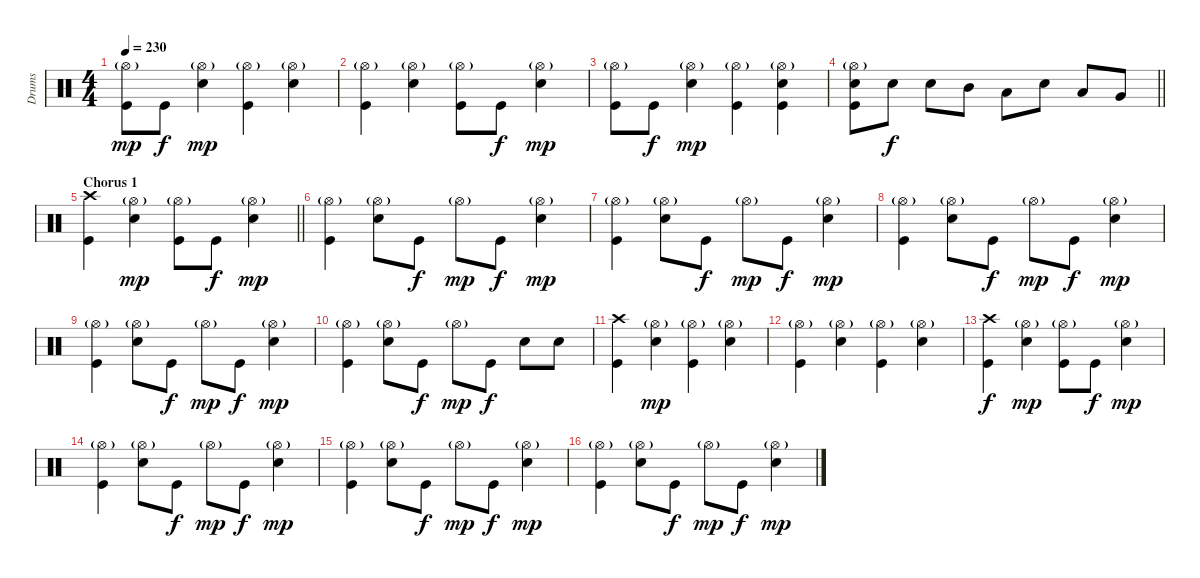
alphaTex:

\track ("Drums" "Drums") {instrument percussion}
\staff {score}
\articulation defaults
\ts (4 4)
\tempo 230
\clef neutral
\ks c
("Hi-Hat (open)"{g} "Kick (hit)").8{dy mp} "Kick (hit)".8{dy f} ("Hi-Hat (open)"{g} "Snare (hit) 2").4{dy mp} ("Hi-Hat (open)"{g} "Kick (hit)").4 ("Hi-Hat (open)"{g} "Snare (hit) 2").4 |
("Hi-Hat (open)"{g} "Kick (hit)").4 ("Hi-Hat (open)"{g} "Snare (hit) 2").4 ("Hi-Hat (open)"{g} "Kick (hit)").8 "Kick (hit)".8{dy f} ("Hi-Hat (open)"{g} "Snare (hit) 2").4{dy mp} |
("Hi-Hat (open)"{g} "Kick (hit)").8 "Kick (hit)".8{dy f} ("Hi-Hat (open)"{g} "Snare (hit) 2").4{dy mp} ("Hi-Hat (open)"{g} "Kick (hit)").4 ("Hi-Hat (open)"{g} "Snare (hit) 2" "Kick (hit)").4 |
\barLineRight lightlight
("Hi-Hat (open)"{g} "Snare (hit) 2" "Kick (hit)").8 "Snare (hit) 2".8{dy f} "Snare (hit) 2".8 "Mid Tom (hit)".8 "Low Tom (hit)".8 "Snare (hit) 2".8 "Low Tom (hit)".8 "Very Low Tom (hit)".8 |
\section ("" "Chorus 1")
\barLineRight lightlight
("Crash high (hit)" "Kick (hit)").4 ("Hi-Hat (open)"{g} "Snare (hit) 2").4{dy mp} ("Hi-Hat (open)"{g} "Kick (hit)").8 "Kick (hit)".8{dy f} ("Hi-Hat (open)"{g} "Snare (hit) 2").4{dy mp} |
("Hi-Hat (open)"{g} "Kick (hit)").4 ("Hi-Hat (open)"{g} "Snare (hit) 2").8 "Kick (hit)".8{dy f} "Hi-Hat (open)"{g}.8{dy mp} "Kick (hit)".8{dy f} ("Hi-Hat (open)"{g} "Snare (hit) 2").4{dy mp} |
("Hi-Hat (open)"{g} "Kick (hit)").4 ("Hi-Hat (open)"{g} "Snare (hit) 2").8 "Kick (hit)".8{dy f} "Hi-Hat (open)"{g}.8{dy mp} "Kick (hit)".8{dy f} ("Hi-Hat (open)"{g} "Snare (hit) 2").4{dy mp} |
("Hi-Hat (open)"{g} "Kick (hit)").4 ("Hi-Hat (open)"{g} "Snare (hit) 2").8 "Kick (hit)".8{dy f} "Hi-Hat (open)"{g}.8{dy mp} "Kick (hit)".8{dy f} ("Hi-Hat (open)"{g} "Snare (hit) 2").4{dy mp} |
("Hi-Hat (open)"{g} "Kick (hit)").4 ("Hi-Hat (open)"{g} "Snare (hit) 2").8 "Kick (hit)".8{dy f} "Hi-Hat (open)"{g}.8{dy mp} "Kick (hit)".8{dy f} ("Hi-Hat (open)"{g} "Snare (hit) 2").4{dy mp} |
("Hi-Hat (open)"{g} "Kick (hit)").4 ("Hi-Hat (open)"{g} "Snare (hit) 2").8 "Kick (hit)".8{dy f} "Hi-Hat (open)"{g}.8{dy mp} "Kick (hit)".8{dy f} "Snare (hit) 2".8 "Snare (hit) 2".8 |
("Crash high (hit)" "Kick (hit)").4 ("Hi-Hat (open)"{g} "Snare (hit) 2").4{dy mp} ("Hi-Hat (open)"{g} "Kick (hit)").4 ("Hi-Hat (open)"{g} "Snare (hit) 2").4 |
("Hi-Hat (open)"{g} "Kick (hit)").4 ("Hi-Hat (open)"{g} "Snare (hit) 2").4 ("Hi-Hat (open)"{g} "Kick (hit)").4 ("Hi-Hat (open)"{g} "Snare (hit) 2").4 |
("Crash high (hit)" "Kick (hit)").4{dy f} ("Hi-Hat (open)"{g} "Snare (hit) 2").4{dy mp} ("Hi-Hat (open)"{g} "Kick (hit)").8 "Kick (hit)".8{dy f} ("Hi-Hat (open)"{g} "Snare (hit) 2").4{dy mp} |
("Hi-Hat (open)"{g} "Kick (hit)").4 ("Hi-Hat (open)"{g} "Snare (hit) 2").8 "Kick (hit)".8{dy f} "Hi-Hat (open)"{g}.8{dy mp} "Kick (hit)".8{dy f} ("Hi-Hat (open)"{g} "Snare (hit) 2").4{dy mp} |
("Hi-Hat (open)"{g} "Kick (hit)").4 ("Hi-Hat (open)"{g} "Snare (hit) 2").8 "Kick (hit)".8{dy f} "Hi-Hat (open)"{g}.8{dy mp} "Kick (hit)".8{dy f} ("Hi-Hat (open)"{g} "Snare (hit) 2").4{dy mp} |
("Hi-Hat (open)"{g} "Kick (hit)").4 ("Hi-Hat (open)"{g} "Snare (hit) 2").8 "Kick (hit)".8{dy f} "Hi-Hat (open)"{g}.8{dy mp} "Kick (hit)".8{dy f} ("Hi-Hat (open)"{g} "Snare (hit) 2").4{dy mp}
